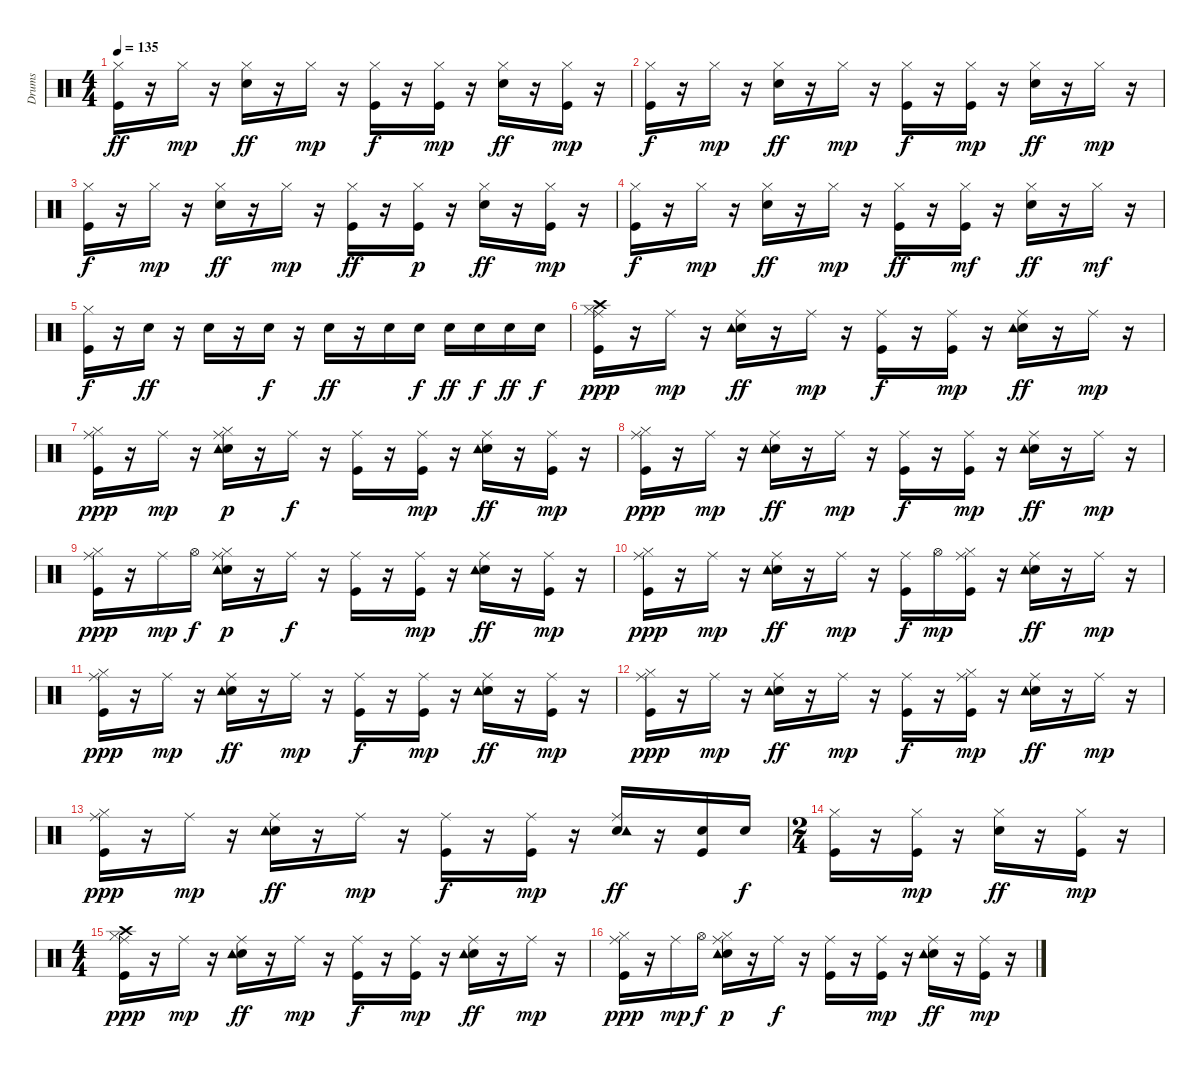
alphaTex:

\track ("Drums   " "Drums   ") {instrument percussion}
\staff {score}
\articulation defaults
\ts (4 4)
\tempo 135
\clef neutral
\ks c
("Kick (hit)" "Hi-Hat (closed)").16{dy ff} r.16 "Hi-Hat (closed)".16{dy mp} r.16 ("Snare (hit) 2" "Hi-Hat (closed)").16{dy ff} r.16 "Hi-Hat (closed)".16{dy mp} r.16 ("Kick (hit)" "Hi-Hat (closed)").16{dy f} r.16 ("Kick (hit)" "Hi-Hat (closed)").16{dy mp} r.16 ("Snare (hit) 2" "Hi-Hat (closed)").16{dy ff} r.16 ("Kick (hit)" "Hi-Hat (closed)").16{dy mp} r.16 |
("Kick (hit)" "Hi-Hat (closed)").16{dy f} r.16 "Hi-Hat (closed)".16{dy mp} r.16 ("Snare (hit) 2" "Hi-Hat (closed)").16{dy ff} r.16 "Hi-Hat (closed)".16{dy mp} r.16 ("Kick (hit)" "Hi-Hat (closed)").16{dy f} r.16 ("Kick (hit)" "Hi-Hat (closed)").16{dy mp} r.16 ("Snare (hit) 2" "Hi-Hat (closed)").16{dy ff} r.16 "Hi-Hat (closed)".16{dy mp} r.16 |
("Kick (hit)" "Hi-Hat (closed)").16{dy f} r.16 "Hi-Hat (closed)".16{dy mp} r.16 ("Snare (hit) 2" "Hi-Hat (closed)").16{dy ff} r.16 "Hi-Hat (closed)".16{dy mp} r.16 ("Kick (hit)" "Hi-Hat (closed)").16{dy ff} r.16 ("Kick (hit)" "Hi-Hat (closed)").16{dy p} r.16 ("Snare (hit) 2" "Hi-Hat (closed)").16{dy ff} r.16 ("Kick (hit)" "Hi-Hat (closed)").16{dy mp} r.16 |
("Kick (hit)" "Hi-Hat (closed)").16{dy f} r.16 "Hi-Hat (closed)".16{dy mp} r.16 ("Snare (hit) 2" "Hi-Hat (closed)").16{dy ff} r.16 "Hi-Hat (closed)".16{dy mp} r.16 ("Kick (hit)" "Hi-Hat (closed)").16{dy ff} r.16 ("Kick (hit)" "Hi-Hat (closed)").16{dy mf} r.16 ("Snare (hit) 2" "Hi-Hat (closed)").16{dy ff} r.16 "Hi-Hat (closed)".16{dy mf} r.16 |
("Kick (hit)" "Hi-Hat (closed)").16{dy f} r.16 "Snare (hit) 2".16{dy ff} r.16 "Snare (hit) 2".16 r.16 "Snare (hit) 2".16{dy f} r.16 "Snare (hit) 2".16{dy ff} r.16 "Snare (hit) 2".16 "Snare (hit) 2".16{dy f} "Snare (hit) 2".16{dy ff} "Snare (hit) 2".16{dy f} "Snare (hit) 2".16{dy ff} "Snare (hit) 2".16{dy f} |
("Kick (hit)" "Hi-Hat (closed)" "Ride (middle)" "Crash high (hit)").16{dy ppp} r.16 "Ride (middle)".16{dy mp} r.16 ("Snare (hit) 2" "Ride (middle)" "Tambourine (hit)").16{dy ff} r.16 "Ride (middle)".16{dy mp} r.16 ("Kick (hit)" "Ride (middle)").16{dy f} r.16 ("Kick (hit)" "Ride (middle)").16{dy mp} r.16 ("Snare (hit) 2" "Ride (middle)" "Tambourine (hit)").16{dy ff} r.16 "Ride (middle)".16{dy mp} r.16 |
("Kick (hit)" "Hi-Hat (closed)" "Ride (middle)").16{dy ppp} r.16 "Ride (middle)".16{dy mp} r.16 ("Snare (hit) 2" "Hi-Hat (closed)" "Ride (middle)" "Tambourine (hit)").16{dy p} r.16 "Ride (middle)".16{dy f} r.16 ("Kick (hit)" "Ride (middle)").16 r.16 ("Kick (hit)" "Ride (middle)").16{dy mp} r.16 ("Snare (hit) 2" "Ride (middle)" "Tambourine (hit)").16{dy ff} r.16 ("Kick (hit)" "Ride (middle)").16{dy mp} r.16 |
("Kick (hit)" "Hi-Hat (closed)" "Ride (middle)").16{dy ppp} r.16 "Ride (middle)".16{dy mp} r.16 ("Snare (hit) 2" "Ride (middle)" "Tambourine (hit)").16{dy ff} r.16 "Ride (middle)".16{dy mp} r.16 ("Kick (hit)" "Ride (middle)").16{dy f} r.16 ("Kick (hit)" "Ride (middle)").16{dy mp} r.16 ("Snare (hit) 2" "Ride (middle)" "Tambourine (hit)").16{dy ff} r.16 "Ride (middle)".16{dy mp} r.16 |
("Kick (hit)" "Hi-Hat (closed)" "Ride (middle)").16{dy ppp} r.16 "Ride (middle)".16{dy mp} "Hi-Hat (open)".16{dy f} ("Snare (hit) 2" "Hi-Hat (closed)" "Ride (middle)" "Tambourine (hit)").16{dy p} r.16 "Ride (middle)".16{dy f} r.16 ("Kick (hit)" "Ride (middle)").16 r.16 ("Kick (hit)" "Ride (middle)").16{dy mp} r.16 ("Snare (hit) 2" "Ride (middle)" "Tambourine (hit)").16{dy ff} r.16 ("Kick (hit)" "Ride (middle)").16{dy mp} r.16 |
("Kick (hit)" "Hi-Hat (closed)" "Ride (middle)").16{dy ppp} r.16 "Ride (middle)".16{dy mp} r.16 ("Snare (hit) 2" "Ride (middle)" "Tambourine (hit)").16{dy ff} r.16 "Ride (middle)".16{dy mp} r.16 ("Kick (hit)" "Ride (middle)").16{dy f} "Hi-Hat (open)".16{dy mp} ("Kick (hit)" "Hi-Hat (closed)" "Ride (middle)").16 r.16 ("Snare (hit) 2" "Ride (middle)" "Tambourine (hit)").16{dy ff} r.16 "Ride (middle)".16{dy mp} r.16 |
("Kick (hit)" "Hi-Hat (closed)" "Ride (middle)").16{dy ppp} r.16 "Ride (middle)".16{dy mp} r.16 ("Snare (hit) 2" "Ride (middle)" "Tambourine (hit)").16{dy ff} r.16 "Ride (middle)".16{dy mp} r.16 ("Kick (hit)" "Ride (middle)").16{dy f} r.16 ("Kick (hit)" "Ride (middle)").16{dy mp} r.16 ("Snare (hit) 2" "Ride (middle)" "Tambourine (hit)").16{dy ff} r.16 ("Kick (hit)" "Ride (middle)").16{dy mp} r.16 |
("Kick (hit)" "Hi-Hat (closed)" "Ride (middle)").16{dy ppp} r.16 "Ride (middle)".16{dy mp} r.16 ("Snare (hit) 2" "Ride (middle)" "Tambourine (hit)").16{dy ff} r.16 "Ride (middle)".16{dy mp} r.16 ("Kick (hit)" "Ride (middle)").16{dy f} r.16 ("Kick (hit)" "Hi-Hat (closed)" "Ride (middle)").16{dy mp} r.16 ("Snare (hit) 2" "Ride (middle)" "Tambourine (hit)").16{dy ff} r.16 "Ride (middle)".16{dy mp} r.16 |
("Kick (hit)" "Hi-Hat (closed)" "Ride (middle)").16{dy ppp} r.16 "Ride (middle)".16{dy mp} r.16 ("Snare (hit) 2" "Ride (middle)" "Tambourine (hit)").16{dy ff} r.16 "Ride (middle)".16{dy mp} r.16 ("Kick (hit)" "Ride (middle)").16{dy f} r.16 ("Kick (hit)" "Ride (middle)").16{dy mp} r.16 ("Snare (hit) 2" "Ride (middle)" "Tambourine (hit)").16{dy ff} r.16 ("Kick (hit)" "Snare (hit) 2").16 "Snare (hit) 2".16{dy f} |
\ts (2 4)
("Kick (hit)" "Hi-Hat (closed)").16 r.16 ("Kick (hit)" "Hi-Hat (closed)").16{dy mp} r.16 ("Snare (hit) 2" "Hi-Hat (closed)").16{dy ff} r.16 ("Kick (hit)" "Hi-Hat (closed)").16{dy mp} r.16 |
\ts (4 4)
("Kick (hit)" "Hi-Hat (closed)" "Ride (middle)" "Crash high (hit)").16{dy ppp} r.16 "Ride (middle)".16{dy mp} r.16 ("Snare (hit) 2" "Ride (middle)" "Tambourine (hit)").16{dy ff} r.16 "Ride (middle)".16{dy mp} r.16 ("Kick (hit)" "Ride (middle)").16{dy f} r.16 ("Kick (hit)" "Ride (middle)").16{dy mp} r.16 ("Snare (hit) 2" "Ride (middle)" "Tambourine (hit)").16{dy ff} r.16 "Ride (middle)".16{dy mp} r.16 |
("Kick (hit)" "Hi-Hat (closed)" "Ride (middle)").16{dy ppp} r.16 "Ride (middle)".16{dy mp} "Hi-Hat (open)".16{dy f} ("Snare (hit) 2" "Hi-Hat (closed)" "Ride (middle)" "Tambourine (hit)").16{dy p} r.16 "Ride (middle)".16{dy f} r.16 ("Kick (hit)" "Ride (middle)").16 r.16 ("Kick (hit)" "Ride (middle)").16{dy mp} r.16 ("Snare (hit) 2" "Ride (middle)" "Tambourine (hit)").16{dy ff} r.16 ("Kick (hit)" "Ride (middle)").16{dy mp} r.16
